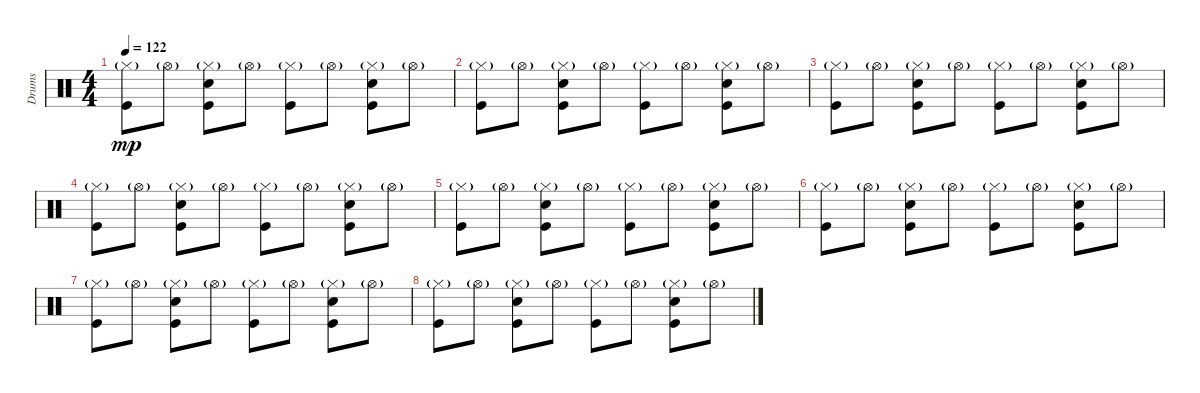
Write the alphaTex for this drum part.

\track ("Drums" "Drums") {instrument percussion}
\staff {score}
\articulation defaults
\ts (4 4)
\tempo 122
\clef neutral
\ks c
("Hi-Hat (closed)"{g} "Kick (hit)").8{dy mp} "Hi-Hat (open)"{g}.8 ("Hi-Hat (closed)"{g} "Electric Snare (hit)" "Kick (hit)").8 "Hi-Hat (open)"{g}.8 ("Hi-Hat (closed)"{g} "Kick (hit)").8 "Hi-Hat (open)"{g}.8 ("Hi-Hat (closed)"{g} "Electric Snare (hit)" "Kick (hit)").8 "Hi-Hat (open)"{g}.8 |
("Hi-Hat (closed)"{g} "Kick (hit)").8 "Hi-Hat (open)"{g}.8 ("Hi-Hat (closed)"{g} "Electric Snare (hit)" "Kick (hit)").8 "Hi-Hat (open)"{g}.8 ("Hi-Hat (closed)"{g} "Kick (hit)").8 "Hi-Hat (open)"{g}.8 ("Hi-Hat (closed)"{g} "Electric Snare (hit)" "Kick (hit)").8 "Hi-Hat (open)"{g}.8 |
("Hi-Hat (closed)"{g} "Kick (hit)").8 "Hi-Hat (open)"{g}.8 ("Hi-Hat (closed)"{g} "Electric Snare (hit)" "Kick (hit)").8 "Hi-Hat (open)"{g}.8 ("Hi-Hat (closed)"{g} "Kick (hit)").8 "Hi-Hat (open)"{g}.8 ("Hi-Hat (closed)"{g} "Electric Snare (hit)" "Kick (hit)").8 "Hi-Hat (open)"{g}.8 |
("Hi-Hat (closed)"{g} "Kick (hit)").8 "Hi-Hat (open)"{g}.8 ("Hi-Hat (closed)"{g} "Electric Snare (hit)" "Kick (hit)").8 "Hi-Hat (open)"{g}.8 ("Hi-Hat (closed)"{g} "Kick (hit)").8 "Hi-Hat (open)"{g}.8 ("Hi-Hat (closed)"{g} "Electric Snare (hit)" "Kick (hit)").8 "Hi-Hat (open)"{g}.8 |
("Hi-Hat (closed)"{g} "Kick (hit)").8 "Hi-Hat (open)"{g}.8 ("Hi-Hat (closed)"{g} "Electric Snare (hit)" "Kick (hit)").8 "Hi-Hat (open)"{g}.8 ("Hi-Hat (closed)"{g} "Kick (hit)").8 "Hi-Hat (open)"{g}.8 ("Hi-Hat (closed)"{g} "Electric Snare (hit)" "Kick (hit)").8 "Hi-Hat (open)"{g}.8 |
("Hi-Hat (closed)"{g} "Kick (hit)").8 "Hi-Hat (open)"{g}.8 ("Hi-Hat (closed)"{g} "Electric Snare (hit)" "Kick (hit)").8 "Hi-Hat (open)"{g}.8 ("Hi-Hat (closed)"{g} "Kick (hit)").8 "Hi-Hat (open)"{g}.8 ("Hi-Hat (closed)"{g} "Electric Snare (hit)" "Kick (hit)").8 "Hi-Hat (open)"{g}.8 |
("Hi-Hat (closed)"{g} "Kick (hit)").8 "Hi-Hat (open)"{g}.8 ("Hi-Hat (closed)"{g} "Electric Snare (hit)" "Kick (hit)").8 "Hi-Hat (open)"{g}.8 ("Hi-Hat (closed)"{g} "Kick (hit)").8 "Hi-Hat (open)"{g}.8 ("Hi-Hat (closed)"{g} "Electric Snare (hit)" "Kick (hit)").8 "Hi-Hat (open)"{g}.8 |
("Hi-Hat (closed)"{g} "Kick (hit)").8 "Hi-Hat (open)"{g}.8 ("Hi-Hat (closed)"{g} "Electric Snare (hit)" "Kick (hit)").8 "Hi-Hat (open)"{g}.8 ("Hi-Hat (closed)"{g} "Kick (hit)").8 "Hi-Hat (open)"{g}.8 ("Hi-Hat (closed)"{g} "Electric Snare (hit)" "Kick (hit)").8 "Hi-Hat (open)"{g}.8
